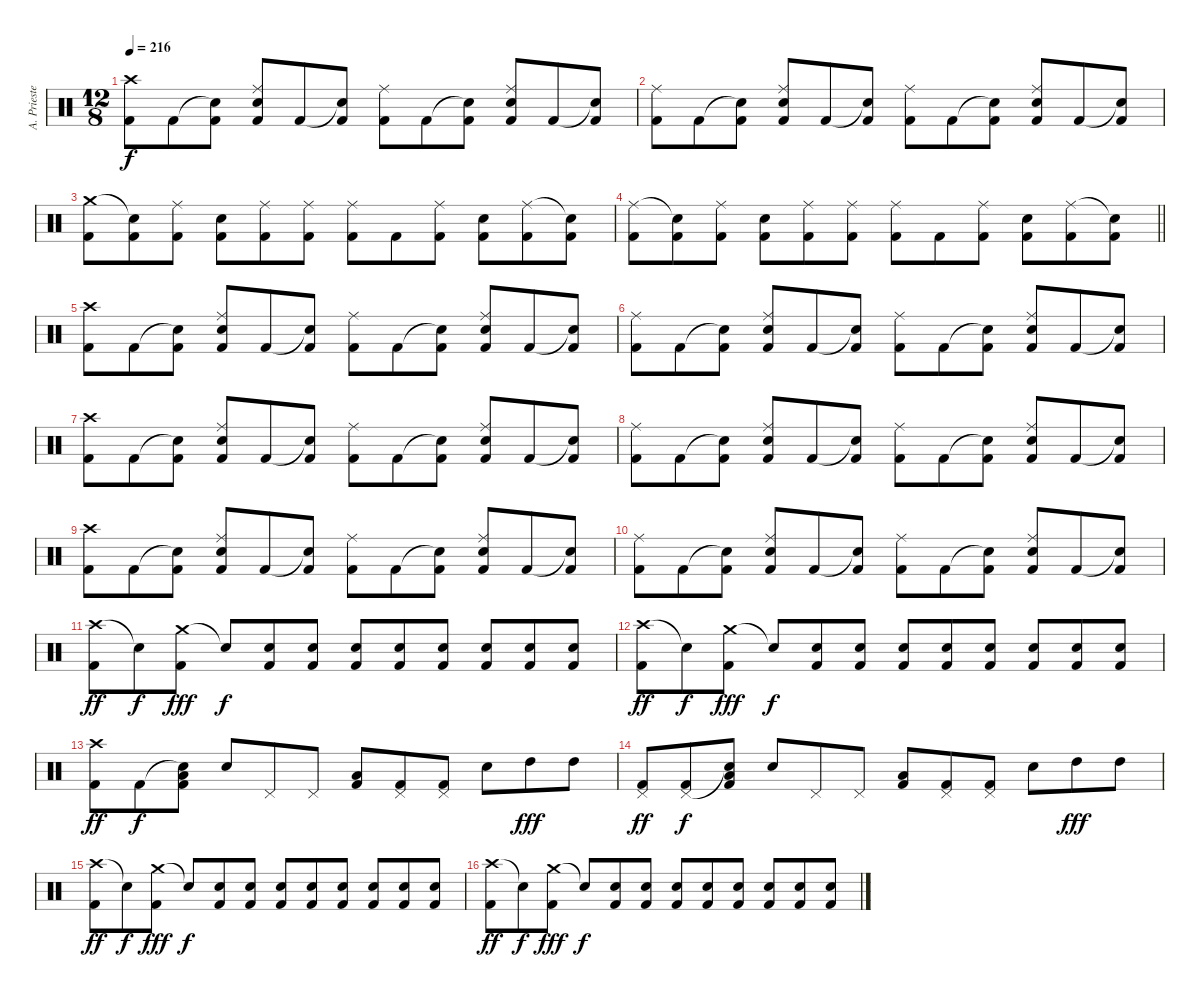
\track ("A. Priester" "A. Prieste") {instrument percussion}
\staff {score}
\articulation defaults
\ts (12 8)
\tempo 216
\clef neutral
\ks c
("Crash high (hit)" "Kick (hit) 2").8{dy f} "Kick (hit) 2".8 ("Snare (hit)"{t} "Kick (hit) 2").8 ("Ride (middle)" "Electric Snare (hit)" "Kick (hit) 2").8 "Kick (hit) 2".8 ("Snare (hit)"{t} "Kick (hit) 2").8 ("Ride (middle)" "Kick (hit) 2").8 "Kick (hit) 2".8 ("Snare (hit)"{t} "Kick (hit) 2").8 ("Ride (middle)" "Electric Snare (hit)" "Kick (hit) 2").8 "Kick (hit) 2".8 ("Snare (hit)"{t} "Kick (hit) 2").8 |
("Ride (middle)" "Kick (hit) 2").8 "Kick (hit) 2".8 ("Snare (hit)"{t} "Kick (hit) 2").8 ("Ride (middle)" "Electric Snare (hit)" "Kick (hit) 2").8 "Kick (hit) 2".8 ("Snare (hit)"{t} "Kick (hit) 2").8 ("Ride (middle)" "Kick (hit) 2").8 "Kick (hit) 2".8 ("Snare (hit)"{t} "Kick (hit) 2").8 ("Ride (middle)" "Electric Snare (hit)" "Kick (hit) 2").8 "Kick (hit) 2".8 ("Snare (hit)"{t} "Kick (hit) 2").8 |
("Crash medium (hit)" "Kick (hit) 2").8 ("Snare (hit)"{t} "Kick (hit) 2").8 ("Ride (middle)" "Kick (hit) 2").8 ("Electric Snare (hit)" "Kick (hit) 2").8 ("Ride (middle)" "Kick (hit) 2").8 ("Ride (middle)" "Kick (hit) 2").8 ("Ride (middle)" "Kick (hit) 2").8 "Kick (hit) 2".8 ("Ride (middle)" "Kick (hit) 2").8 ("Electric Snare (hit)" "Kick (hit) 2").8 ("Ride (middle)" "Kick (hit) 2").8 ("Snare (hit)"{t} "Kick (hit) 2").8 |
\barLineRight lightlight
("Ride (middle)" "Kick (hit) 2").8 ("Snare (hit)"{t} "Kick (hit) 2").8 ("Ride (middle)" "Kick (hit) 2").8 ("Electric Snare (hit)" "Kick (hit) 2").8 ("Ride (middle)" "Kick (hit) 2").8 ("Ride (middle)" "Kick (hit) 2").8 ("Ride (middle)" "Kick (hit) 2").8 "Kick (hit) 2".8 ("Ride (middle)" "Kick (hit) 2").8 ("Electric Snare (hit)" "Kick (hit) 2").8 ("Ride (middle)" "Kick (hit) 2").8 ("Snare (hit)"{t} "Kick (hit) 2").8 |
("Crash high (hit)" "Kick (hit) 2").8 "Kick (hit) 2".8 ("Snare (hit)"{t} "Kick (hit) 2").8 ("Ride (middle)" "Electric Snare (hit)" "Kick (hit) 2").8 "Kick (hit) 2".8 ("Snare (hit)"{t} "Kick (hit) 2").8 ("Ride (middle)" "Kick (hit) 2").8 "Kick (hit) 2".8 ("Snare (hit)"{t} "Kick (hit) 2").8 ("Ride (middle)" "Electric Snare (hit)" "Kick (hit) 2").8 "Kick (hit) 2".8 ("Snare (hit)"{t} "Kick (hit) 2").8 |
("Ride (middle)" "Kick (hit) 2").8 "Kick (hit) 2".8 ("Snare (hit)"{t} "Kick (hit) 2").8 ("Ride (middle)" "Electric Snare (hit)" "Kick (hit) 2").8 "Kick (hit) 2".8 ("Snare (hit)"{t} "Kick (hit) 2").8 ("Ride (middle)" "Kick (hit) 2").8 "Kick (hit) 2".8 ("Snare (hit)"{t} "Kick (hit) 2").8 ("Ride (middle)" "Electric Snare (hit)" "Kick (hit) 2").8 "Kick (hit) 2".8 ("Snare (hit)"{t} "Kick (hit) 2").8 |
("Crash high (hit)" "Kick (hit) 2").8 "Kick (hit) 2".8 ("Snare (hit)"{t} "Kick (hit) 2").8 ("Ride (middle)" "Electric Snare (hit)" "Kick (hit) 2").8 "Kick (hit) 2".8 ("Snare (hit)"{t} "Kick (hit) 2").8 ("Ride (middle)" "Kick (hit) 2").8 "Kick (hit) 2".8 ("Snare (hit)"{t} "Kick (hit) 2").8 ("Ride (middle)" "Electric Snare (hit)" "Kick (hit) 2").8 "Kick (hit) 2".8 ("Snare (hit)"{t} "Kick (hit) 2").8 |
("Ride (middle)" "Kick (hit) 2").8 "Kick (hit) 2".8 ("Snare (hit)"{t} "Kick (hit) 2").8 ("Ride (middle)" "Electric Snare (hit)" "Kick (hit) 2").8 "Kick (hit) 2".8 ("Snare (hit)"{t} "Kick (hit) 2").8 ("Ride (middle)" "Kick (hit) 2").8 "Kick (hit) 2".8 ("Snare (hit)"{t} "Kick (hit) 2").8 ("Ride (middle)" "Electric Snare (hit)" "Kick (hit) 2").8 "Kick (hit) 2".8 ("Snare (hit)"{t} "Kick (hit) 2").8 |
("Crash high (hit)" "Kick (hit) 2").8 "Kick (hit) 2".8 ("Snare (hit)"{t} "Kick (hit) 2").8 ("Ride (middle)" "Electric Snare (hit)" "Kick (hit) 2").8 "Kick (hit) 2".8 ("Snare (hit)"{t} "Kick (hit) 2").8 ("Ride (middle)" "Kick (hit) 2").8 "Kick (hit) 2".8 ("Snare (hit)"{t} "Kick (hit) 2").8 ("Ride (middle)" "Electric Snare (hit)" "Kick (hit) 2").8 "Kick (hit) 2".8 ("Snare (hit)"{t} "Kick (hit) 2").8 |
("Ride (middle)" "Kick (hit) 2").8 "Kick (hit) 2".8 ("Snare (hit)"{t} "Kick (hit) 2").8 ("Ride (middle)" "Electric Snare (hit)" "Kick (hit) 2").8 "Kick (hit) 2".8 ("Snare (hit)"{t} "Kick (hit) 2").8 ("Ride (middle)" "Kick (hit) 2").8 "Kick (hit) 2".8 ("Snare (hit)"{t} "Kick (hit) 2").8 ("Ride (middle)" "Electric Snare (hit)" "Kick (hit) 2").8 "Kick (hit) 2".8 ("Snare (hit)"{t} "Kick (hit) 2").8 |
("Crash high (hit)" "Kick (hit) 2").8{dy ff} "Snare (hit)"{t}.8{dy f} ("Crash medium (hit)" "Kick (hit) 2").8{dy fff} "Snare (hit)"{t}.8{dy f} ("Electric Snare (hit)" "Kick (hit) 2").8 ("Electric Snare (hit)" "Kick (hit) 2").8 ("Electric Snare (hit)" "Kick (hit) 2").8 ("Electric Snare (hit)" "Kick (hit) 2").8 ("Electric Snare (hit)" "Kick (hit) 2").8 ("Electric Snare (hit)" "Kick (hit) 2").8 ("Electric Snare (hit)" "Kick (hit) 2").8 ("Electric Snare (hit)" "Kick (hit) 2").8 |
("Crash high (hit)" "Kick (hit) 2").8{dy ff} "Snare (hit)"{t}.8{dy f} ("Crash medium (hit)" "Kick (hit) 2").8{dy fff} "Snare (hit)"{t}.8{dy f} ("Electric Snare (hit)" "Kick (hit) 2").8 ("Electric Snare (hit)" "Kick (hit) 2").8 ("Electric Snare (hit)" "Kick (hit) 2").8 ("Electric Snare (hit)" "Kick (hit) 2").8 ("Electric Snare (hit)" "Kick (hit) 2").8 ("Electric Snare (hit)" "Kick (hit) 2").8 ("Electric Snare (hit)" "Kick (hit) 2").8 ("Electric Snare (hit)" "Kick (hit) 2").8 |
("Crash high (hit)" "Kick (hit) 2").8{dy ff} "Kick (hit) 2".8{dy f} ("Snare (hit)"{t} "Low Floor Tom (hit)" "Kick (hit) 2").8 "Electric Snare (hit)".8 "Pedal Hi-Hat (hit)".8 "Pedal Hi-Hat (hit)".8 ("Low Floor Tom (hit)" "Kick (hit) 2").8 ("Pedal Hi-Hat (hit)" "Kick (hit) 2").8 ("Pedal Hi-Hat (hit)" "Kick (hit) 2").8 "Electric Snare (hit)".8 "High Tom (hit)".8{dy fff} "High Tom (hit)".8 |
("Pedal Hi-Hat (hit)" "Kick (hit) 2").8{dy ff} ("Pedal Hi-Hat (hit)" "Kick (hit) 2").8{dy f} ("Snare (hit)"{t} "Low Floor Tom (hit)" "Kick (hit) 2").8 "Electric Snare (hit)".8 "Pedal Hi-Hat (hit)".8 "Pedal Hi-Hat (hit)".8 ("Low Floor Tom (hit)" "Kick (hit) 2").8 ("Pedal Hi-Hat (hit)" "Kick (hit) 2").8 ("Pedal Hi-Hat (hit)" "Kick (hit) 2").8 "Electric Snare (hit)".8 "High Tom (hit)".8{dy fff} "High Tom (hit)".8 |
("Crash high (hit)" "Kick (hit) 2").8{dy ff} "Snare (hit)"{t}.8{dy f} ("Crash medium (hit)" "Kick (hit) 2").8{dy fff} "Snare (hit)"{t}.8{dy f} ("Electric Snare (hit)" "Kick (hit) 2").8 ("Electric Snare (hit)" "Kick (hit) 2").8 ("Electric Snare (hit)" "Kick (hit) 2").8 ("Electric Snare (hit)" "Kick (hit) 2").8 ("Electric Snare (hit)" "Kick (hit) 2").8 ("Electric Snare (hit)" "Kick (hit) 2").8 ("Electric Snare (hit)" "Kick (hit) 2").8 ("Electric Snare (hit)" "Kick (hit) 2").8 |
("Crash high (hit)" "Kick (hit) 2").8{dy ff} "Snare (hit)"{t}.8{dy f} ("Crash medium (hit)" "Kick (hit) 2").8{dy fff} "Snare (hit)"{t}.8{dy f} ("Electric Snare (hit)" "Kick (hit) 2").8 ("Electric Snare (hit)" "Kick (hit) 2").8 ("Electric Snare (hit)" "Kick (hit) 2").8 ("Electric Snare (hit)" "Kick (hit) 2").8 ("Electric Snare (hit)" "Kick (hit) 2").8 ("Electric Snare (hit)" "Kick (hit) 2").8 ("Electric Snare (hit)" "Kick (hit) 2").8 ("Electric Snare (hit)" "Kick (hit) 2").8
